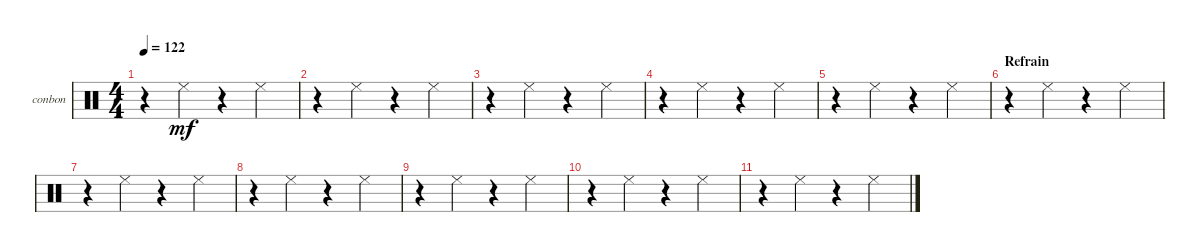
\defaultSystemsLayout 4
\bracketExtendMode groupsimilarinstruments
\firstSystemTrackNameOrientation horizontal
\otherSystemsTrackNameOrientation horizontal
\track ("Bongos N Congas" "conbon") {instrument percussion}
\staff {score}
\articulation defaults
\ts (4 4)
\tempo 122
\clef neutral
\ks c
r.4{dy mf} "Cowbell low (tip)".4 r.4 "Cowbell low (tip)".4 |
r.4 "Cowbell low (tip)".4 r.4 "Cowbell low (tip)".4 |
r.4 "Cowbell low (tip)".4 r.4 "Cowbell low (tip)".4 |
r.4 "Cowbell low (tip)".4 r.4 "Cowbell low (tip)".4 |
r.4 "Cowbell low (tip)".4 r.4 "Cowbell low (tip)".4 |
\section ("" "Refrain")
\scale
0.237113 r.4 "Cowbell low (tip)".4 r.4 "Cowbell low (tip)".4 |
r.4 "Cowbell low (tip)".4 r.4 "Cowbell low (tip)".4 |
r.4 "Cowbell low (tip)".4 r.4 "Cowbell low (tip)".4 |
r.4 "Cowbell low (tip)".4 r.4 "Cowbell low (tip)".4 |
r.4 "Cowbell low (tip)".4 r.4 "Cowbell low (tip)".4 |
r.4 "Cowbell low (tip)".4 r.4 "Cowbell low (tip)".4
